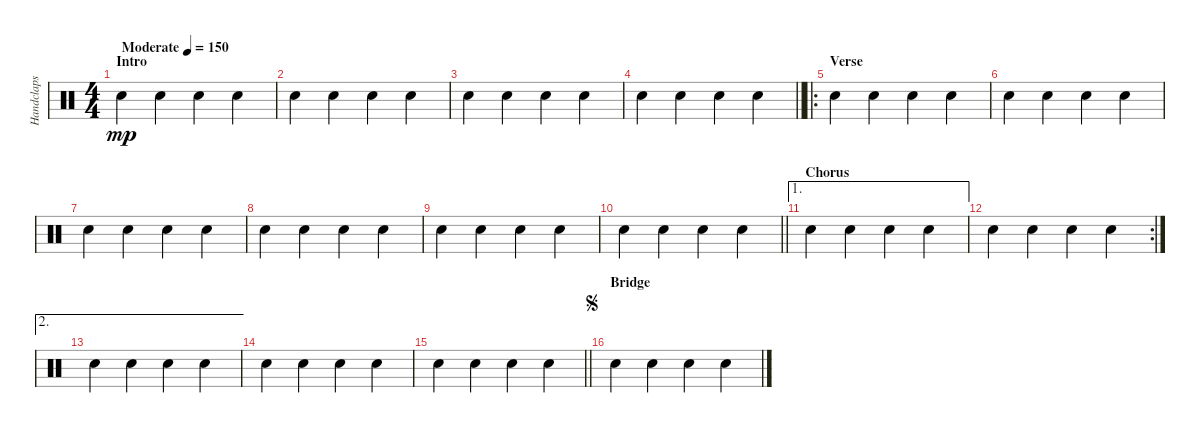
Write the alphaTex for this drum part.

\track ("Handclaps" "Handclaps") {instrument percussion}
\staff {score}
\articulation defaults
\ts (4 4)
\section ("" "Intro")
\tempo (150 "Moderate")
\clef neutral
\ks c "Hand Clap (hit)".4{dy mp} "Hand Clap (hit)".4 "Hand Clap (hit)".4 "Hand Clap (hit)".4
|
"Hand Clap (hit)".4 "Hand Clap (hit)".4 "Hand Clap (hit)".4 "Hand Clap (hit)".4 |
"Hand Clap (hit)".4 "Hand Clap (hit)".4 "Hand Clap (hit)".4 "Hand Clap (hit)".4 |
\barLineRight lightlight "Hand Clap (hit)".4 "Hand Clap (hit)".4 "Hand Clap (hit)".4 "Hand Clap (hit)".4
|
\ro
\section ("" "Verse")
"Hand Clap (hit)".4 "Hand Clap (hit)".4 "Hand Clap (hit)".4 "Hand Clap (hit)".4 |
"Hand Clap (hit)".4 "Hand Clap (hit)".4 "Hand Clap (hit)".4 "Hand Clap (hit)".4 |
"Hand Clap (hit)".4 "Hand Clap (hit)".4 "Hand Clap (hit)".4 "Hand Clap (hit)".4 |
"Hand Clap (hit)".4 "Hand Clap (hit)".4 "Hand Clap (hit)".4 "Hand Clap (hit)".4 |
"Hand Clap (hit)".4 "Hand Clap (hit)".4 "Hand Clap (hit)".4 "Hand Clap (hit)".4 |
\barLineRight lightlight "Hand Clap (hit)".4 "Hand Clap (hit)".4 "Hand Clap (hit)".4 "Hand Clap (hit)".4
|
\ae 1
\section ("" "Chorus")
"Hand Clap (hit)".4 "Hand Clap (hit)".4 "Hand Clap (hit)".4 "Hand Clap (hit)".4 |
\rc 2 "Hand Clap (hit)".4 "Hand Clap (hit)".4 "Hand Clap (hit)".4 "Hand Clap (hit)".4
|
\ae 2 "Hand Clap (hit)".4 "Hand Clap (hit)".4 "Hand Clap (hit)".4 "Hand Clap (hit)".4
|
"Hand Clap (hit)".4 "Hand Clap (hit)".4 "Hand Clap (hit)".4 "Hand Clap (hit)".4 |
\barLineRight lightlight "Hand Clap (hit)".4 "Hand Clap (hit)".4 "Hand Clap (hit)".4 "Hand Clap (hit)".4
|
\section ("" "Bridge")
\jump segno "Hand Clap (hit)".4 "Hand Clap (hit)".4 "Hand Clap (hit)".4 "Hand Clap (hit)".4
